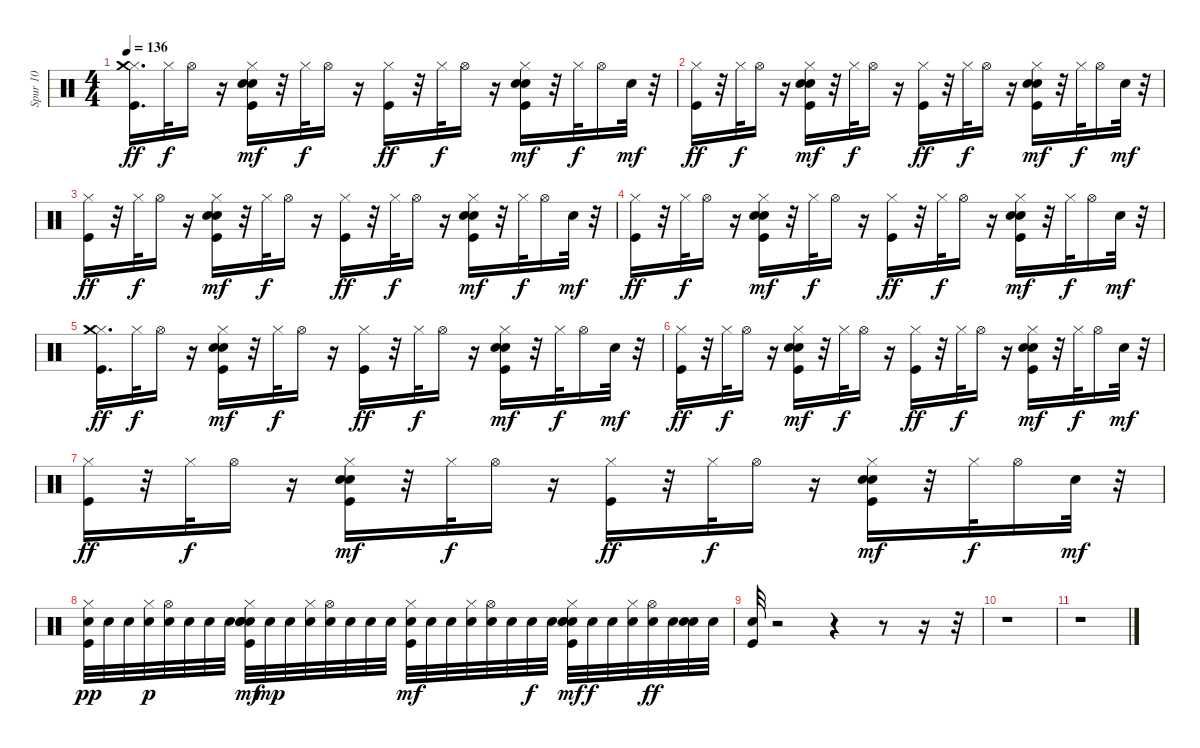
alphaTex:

\track ("Spur 10" "Spur 10") {instrument percussion}
\staff {score}
\articulation defaults
\ts (4 4)
\tempo 136
\clef neutral
\ks c
("Kick (hit)" "Hi-Hat (closed)" "Crash medium (hit)").16{d dy ff} "Hi-Hat (closed)".32{dy f} "Hi-Hat (open)".16 r.16 ("Kick (hit)" "Snare (hit) 2" "Hi-Hat (closed)" "Hand Clap (hit)").16{dy mf} r.32 "Hi-Hat (closed)".32{dy f} "Hi-Hat (open)".16 r.16 ("Kick (hit)" "Hi-Hat (closed)").16{dy ff} r.32 "Hi-Hat (closed)".32{dy f} "Hi-Hat (open)".16 r.16 ("Kick (hit)" "Snare (hit) 2" "Hi-Hat (closed)" "Hand Clap (hit)").16{dy mf} r.32 "Hi-Hat (closed)".32{dy f} "Hi-Hat (open)".16 "Snare (hit) 2".32{dy mf} r.32 |
("Kick (hit)" "Hi-Hat (closed)").16{dy ff} r.32 "Hi-Hat (closed)".32{dy f} "Hi-Hat (open)".16 r.16 ("Kick (hit)" "Snare (hit) 2" "Hi-Hat (closed)" "Hand Clap (hit)").16{dy mf} r.32 "Hi-Hat (closed)".32{dy f} "Hi-Hat (open)".16 r.16 ("Kick (hit)" "Hi-Hat (closed)").16{dy ff} r.32 "Hi-Hat (closed)".32{dy f} "Hi-Hat (open)".16 r.16 ("Kick (hit)" "Snare (hit) 2" "Hi-Hat (closed)" "Hand Clap (hit)").16{dy mf} r.32 "Hi-Hat (closed)".32{dy f} "Hi-Hat (open)".16 "Snare (hit) 2".32{dy mf} r.32 |
("Kick (hit)" "Hi-Hat (closed)").16{dy ff} r.32 "Hi-Hat (closed)".32{dy f} "Hi-Hat (open)".16 r.16 ("Kick (hit)" "Snare (hit) 2" "Hi-Hat (closed)" "Hand Clap (hit)").16{dy mf} r.32 "Hi-Hat (closed)".32{dy f} "Hi-Hat (open)".16 r.16 ("Kick (hit)" "Hi-Hat (closed)").16{dy ff} r.32 "Hi-Hat (closed)".32{dy f} "Hi-Hat (open)".16 r.16 ("Kick (hit)" "Snare (hit) 2" "Hi-Hat (closed)" "Hand Clap (hit)").16{dy mf} r.32 "Hi-Hat (closed)".32{dy f} "Hi-Hat (open)".16 "Snare (hit) 2".32{dy mf} r.32 |
("Kick (hit)" "Hi-Hat (closed)").16{dy ff} r.32 "Hi-Hat (closed)".32{dy f} "Hi-Hat (open)".16 r.16 ("Kick (hit)" "Snare (hit) 2" "Hi-Hat (closed)" "Hand Clap (hit)").16{dy mf} r.32 "Hi-Hat (closed)".32{dy f} "Hi-Hat (open)".16 r.16 ("Kick (hit)" "Hi-Hat (closed)").16{dy ff} r.32 "Hi-Hat (closed)".32{dy f} "Hi-Hat (open)".16 r.16 ("Kick (hit)" "Snare (hit) 2" "Hi-Hat (closed)" "Hand Clap (hit)").16{dy mf} r.32 "Hi-Hat (closed)".32{dy f} "Hi-Hat (open)".16 "Snare (hit) 2".32{dy mf} r.32 |
("Kick (hit)" "Hi-Hat (closed)" "Crash medium (hit)").16{d dy ff} "Hi-Hat (closed)".32{dy f} "Hi-Hat (open)".16 r.16 ("Kick (hit)" "Snare (hit) 2" "Hi-Hat (closed)" "Hand Clap (hit)").16{dy mf} r.32 "Hi-Hat (closed)".32{dy f} "Hi-Hat (open)".16 r.16 ("Kick (hit)" "Hi-Hat (closed)").16{dy ff} r.32 "Hi-Hat (closed)".32{dy f} "Hi-Hat (open)".16 r.16 ("Kick (hit)" "Snare (hit) 2" "Hi-Hat (closed)" "Hand Clap (hit)").16{dy mf} r.32 "Hi-Hat (closed)".32{dy f} "Hi-Hat (open)".16 "Snare (hit) 2".32{dy mf} r.32 |
("Kick (hit)" "Hi-Hat (closed)").16{dy ff} r.32 "Hi-Hat (closed)".32{dy f} "Hi-Hat (open)".16 r.16 ("Kick (hit)" "Snare (hit) 2" "Hi-Hat (closed)" "Hand Clap (hit)").16{dy mf} r.32 "Hi-Hat (closed)".32{dy f} "Hi-Hat (open)".16 r.16 ("Kick (hit)" "Hi-Hat (closed)").16{dy ff} r.32 "Hi-Hat (closed)".32{dy f} "Hi-Hat (open)".16 r.16 ("Kick (hit)" "Snare (hit) 2" "Hi-Hat (closed)" "Hand Clap (hit)").16{dy mf} r.32 "Hi-Hat (closed)".32{dy f} "Hi-Hat (open)".16 "Snare (hit) 2".32{dy mf} r.32 |
("Kick (hit)" "Hi-Hat (closed)").16{dy ff} r.32 "Hi-Hat (closed)".32{dy f} "Hi-Hat (open)".16 r.16 ("Kick (hit)" "Snare (hit) 2" "Hi-Hat (closed)" "Hand Clap (hit)").16{dy mf} r.32 "Hi-Hat (closed)".32{dy f} "Hi-Hat (open)".16 r.16 ("Kick (hit)" "Hi-Hat (closed)").16{dy ff} r.32 "Hi-Hat (closed)".32{dy f} "Hi-Hat (open)".16 r.16 ("Kick (hit)" "Snare (hit) 2" "Hi-Hat (closed)" "Hand Clap (hit)").16{dy mf} r.32 "Hi-Hat (closed)".32{dy f} "Hi-Hat (open)".16 "Snare (hit) 2".32{dy mf} r.32 |
("Kick (hit)" "Hi-Hat (closed)" "Snare (hit) 2").32{dy pp} "Snare (hit) 2".32 "Snare (hit) 2".32 ("Hi-Hat (closed)" "Snare (hit) 2").32{dy p} ("Hi-Hat (open)" "Snare (hit) 2").32 "Snare (hit) 2".32 "Snare (hit) 2".32 "Snare (hit) 2".32 ("Kick (hit)" "Snare (hit) 2" "Hi-Hat (closed)" "Snare (hit) 2" "Hand Clap (hit)").32{dy mf} "Snare (hit) 2".32{dy mp} "Snare (hit) 2".32 ("Hi-Hat (closed)" "Snare (hit) 2").32 ("Hi-Hat (open)" "Snare (hit) 2").32 "Snare (hit) 2".32 "Snare (hit) 2".32 "Snare (hit) 2".32 ("Kick (hit)" "Hi-Hat (closed)" "Snare (hit) 2").32{dy mf} "Snare (hit) 2".32 "Snare (hit) 2".32 ("Hi-Hat (closed)" "Snare (hit) 2").32 ("Hi-Hat (open)" "Snare (hit) 2").32 "Snare (hit) 2".32 "Snare (hit) 2".32{dy f} "Snare (hit) 2".32 ("Kick (hit)" "Snare (hit) 2" "Hi-Hat (closed)" "Snare (hit) 2" "Hand Clap (hit)").32{dy mf} "Snare (hit) 2".32{dy f} "Snare (hit) 2".32 ("Hi-Hat (closed)" "Snare (hit) 2").32 ("Hi-Hat (open)" "Snare (hit) 2").32{dy ff} "Snare (hit) 2".32 ("Snare (hit) 2" "Snare (hit) 2").32 "Snare (hit) 2".32 |
("Kick (hit)" "Snare (hit) 2").32 r.2 r.4 r.8 r.16 r.32 |
r.1 |
r.1
